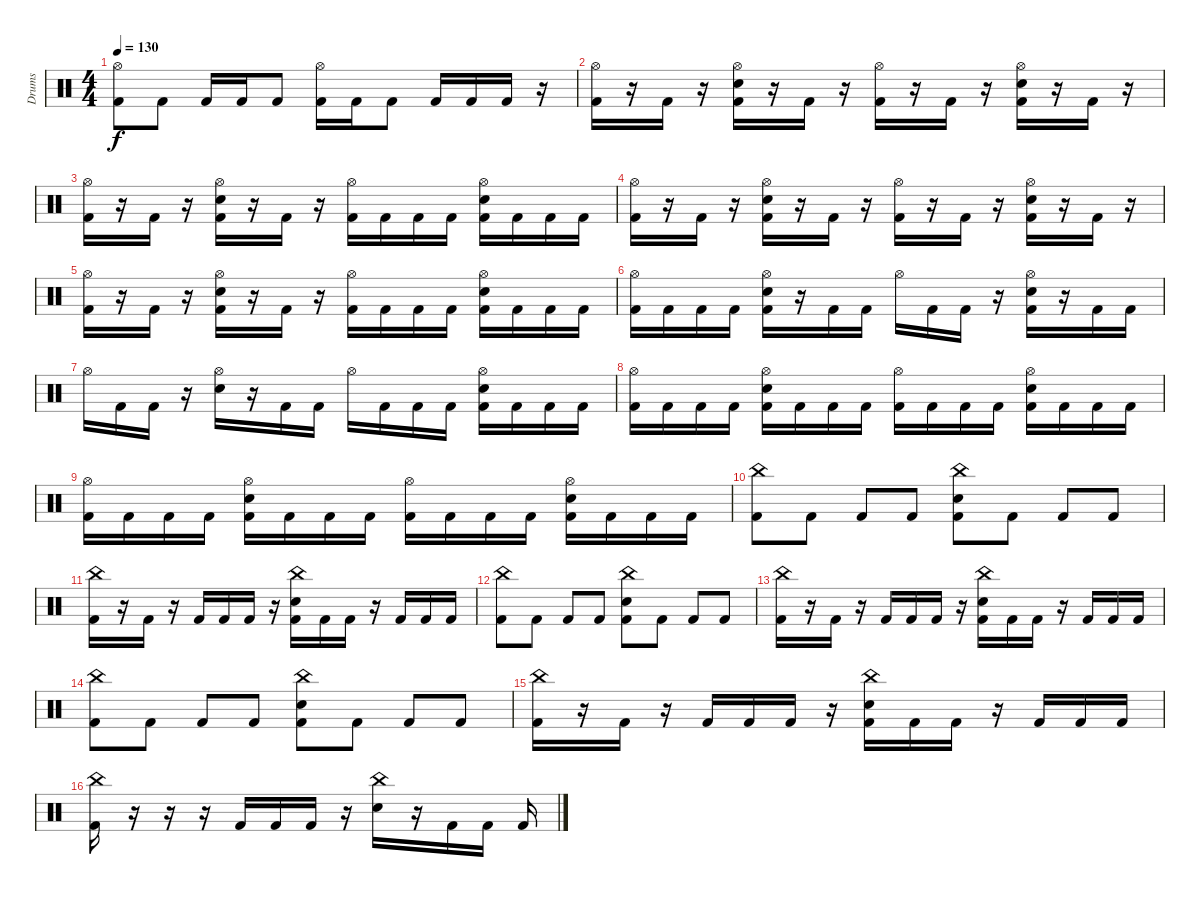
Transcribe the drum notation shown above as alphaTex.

\track ("Drums" "Drums") {instrument percussion}
\staff {score}
\articulation defaults
\ts (4 4)
\tempo 130
\clef neutral
\ks c
("Hi-Hat (open)" "Kick (hit) 2").8{dy f} "Kick (hit) 2".8 "Kick (hit) 2".16 "Kick (hit) 2".16 "Kick (hit) 2".8 ("Hi-Hat (open)" "Kick (hit) 2").16 "Kick (hit) 2".16 "Kick (hit) 2".8 "Kick (hit) 2".16 "Kick (hit) 2".16 "Kick (hit) 2".16 r.16 |
("Hi-Hat (open)" "Kick (hit) 2").16 r.16 "Kick (hit) 2".16 r.16 ("Hi-Hat (open)" "Snare (hit) 2" "Kick (hit) 2").16 r.16 "Kick (hit) 2".16 r.16 ("Hi-Hat (open)" "Kick (hit) 2").16 r.16 "Kick (hit) 2".16 r.16 ("Hi-Hat (open)" "Snare (hit) 2" "Kick (hit) 2").16 r.16 "Kick (hit) 2".16 r.16 |
("Hi-Hat (open)" "Kick (hit) 2").16 r.16 "Kick (hit) 2".16 r.16 ("Hi-Hat (open)" "Snare (hit) 2" "Kick (hit) 2").16 r.16 "Kick (hit) 2".16 r.16 ("Hi-Hat (open)" "Kick (hit) 2").16 "Kick (hit) 2".16 "Kick (hit) 2".16 "Kick (hit) 2".16 ("Hi-Hat (open)" "Snare (hit) 2" "Kick (hit) 2").16 "Kick (hit) 2".16 "Kick (hit) 2".16 "Kick (hit) 2".16 |
("Hi-Hat (open)" "Kick (hit) 2").16 r.16 "Kick (hit) 2".16 r.16 ("Hi-Hat (open)" "Snare (hit) 2" "Kick (hit) 2").16 r.16 "Kick (hit) 2".16 r.16 ("Hi-Hat (open)" "Kick (hit) 2").16 r.16 "Kick (hit) 2".16 r.16 ("Hi-Hat (open)" "Snare (hit) 2" "Kick (hit) 2").16 r.16 "Kick (hit) 2".16 r.16 |
("Hi-Hat (open)" "Kick (hit) 2").16 r.16 "Kick (hit) 2".16 r.16 ("Hi-Hat (open)" "Snare (hit) 2" "Kick (hit) 2").16 r.16 "Kick (hit) 2".16 r.16 ("Hi-Hat (open)" "Kick (hit) 2").16 "Kick (hit) 2".16 "Kick (hit) 2".16 "Kick (hit) 2".16 ("Hi-Hat (open)" "Snare (hit) 2" "Kick (hit) 2").16 "Kick (hit) 2".16 "Kick (hit) 2".16 "Kick (hit) 2".16 |
("Hi-Hat (open)" "Kick (hit) 2").16 "Kick (hit) 2".16 "Kick (hit) 2".16 "Kick (hit) 2".16 ("Hi-Hat (open)" "Snare (hit) 2" "Kick (hit) 2").16 r.16 "Kick (hit) 2".16 "Kick (hit) 2".16 "Hi-Hat (open)".16 "Kick (hit) 2".16 "Kick (hit) 2".16 r.16 ("Hi-Hat (open)" "Snare (hit) 2" "Kick (hit) 2").16 r.16 "Kick (hit) 2".16 "Kick (hit) 2".16 |
"Hi-Hat (open)".16 "Kick (hit) 2".16 "Kick (hit) 2".16 r.16 ("Hi-Hat (open)" "Snare (hit) 2").16 r.16 "Kick (hit) 2".16 "Kick (hit) 2".16 "Hi-Hat (open)".16 "Kick (hit) 2".16 "Kick (hit) 2".16 "Kick (hit) 2".16 ("Hi-Hat (open)" "Snare (hit) 2" "Kick (hit) 2").16 "Kick (hit) 2".16 "Kick (hit) 2".16 "Kick (hit) 2".16 |
("Hi-Hat (open)" "Kick (hit) 2").16 "Kick (hit) 2".16 "Kick (hit) 2".16 "Kick (hit) 2".16 ("Hi-Hat (open)" "Snare (hit) 2" "Kick (hit) 2").16 "Kick (hit) 2".16 "Kick (hit) 2".16 "Kick (hit) 2".16 ("Hi-Hat (open)" "Kick (hit) 2").16 "Kick (hit) 2".16 "Kick (hit) 2".16 "Kick (hit) 2".16 ("Hi-Hat (open)" "Snare (hit) 2" "Kick (hit) 2").16 "Kick (hit) 2".16 "Kick (hit) 2".16 "Kick (hit) 2".16 |
("Hi-Hat (open)" "Kick (hit) 2").16 "Kick (hit) 2".16 "Kick (hit) 2".16 "Kick (hit) 2".16 ("Hi-Hat (open)" "Snare (hit) 2" "Kick (hit) 2").16 "Kick (hit) 2".16 "Kick (hit) 2".16 "Kick (hit) 2".16 ("Hi-Hat (open)" "Kick (hit) 2").16 "Kick (hit) 2".16 "Kick (hit) 2".16 "Kick (hit) 2".16 ("Hi-Hat (open)" "Snare (hit) 2" "Kick (hit) 2").16 "Kick (hit) 2".16 "Kick (hit) 2".16 "Kick (hit) 2".16 |
("China (hit)" "Kick (hit) 2").8 "Kick (hit) 2".8 "Kick (hit) 2".8 "Kick (hit) 2".8 ("China (hit)" "Snare (hit) 2" "Kick (hit) 2").8 "Kick (hit) 2".8 "Kick (hit) 2".8 "Kick (hit) 2".8 |
("China (hit)" "Kick (hit) 2").16 r.16 "Kick (hit) 2".16 r.16 "Kick (hit) 2".16 "Kick (hit) 2".16 "Kick (hit) 2".16 r.16 ("China (hit)" "Snare (hit) 2" "Kick (hit) 2").16 "Kick (hit) 2".16 "Kick (hit) 2".16 r.16 "Kick (hit) 2".16 "Kick (hit) 2".16 "Kick (hit) 2".16 |
("China (hit)" "Kick (hit) 2").8 "Kick (hit) 2".8 "Kick (hit) 2".8 "Kick (hit) 2".8 ("China (hit)" "Snare (hit) 2" "Kick (hit) 2").8 "Kick (hit) 2".8 "Kick (hit) 2".8 "Kick (hit) 2".8 |
("China (hit)" "Kick (hit) 2").16 r.16 "Kick (hit) 2".16 r.16 "Kick (hit) 2".16 "Kick (hit) 2".16 "Kick (hit) 2".16 r.16 ("China (hit)" "Snare (hit) 2" "Kick (hit) 2").16 "Kick (hit) 2".16 "Kick (hit) 2".16 r.16 "Kick (hit) 2".16 "Kick (hit) 2".16 "Kick (hit) 2".16 |
("China (hit)" "Kick (hit) 2").8 "Kick (hit) 2".8 "Kick (hit) 2".8 "Kick (hit) 2".8 ("China (hit)" "Snare (hit) 2" "Kick (hit) 2").8 "Kick (hit) 2".8 "Kick (hit) 2".8 "Kick (hit) 2".8 |
("China (hit)" "Kick (hit) 2").16 r.16 "Kick (hit) 2".16 r.16 "Kick (hit) 2".16 "Kick (hit) 2".16 "Kick (hit) 2".16 r.16 ("China (hit)" "Snare (hit) 2" "Kick (hit) 2").16 "Kick (hit) 2".16 "Kick (hit) 2".16 r.16 "Kick (hit) 2".16 "Kick (hit) 2".16 "Kick (hit) 2".16 |
("China (hit)" "Kick (hit) 2").16 r.16 r.16 r.16 "Kick (hit) 2".16 "Kick (hit) 2".16 "Kick (hit) 2".16 r.16 ("China (hit)" "Snare (hit) 2").16 r.16 "Kick (hit) 2".16 "Kick (hit) 2".16 "Kick (hit) 2".16
